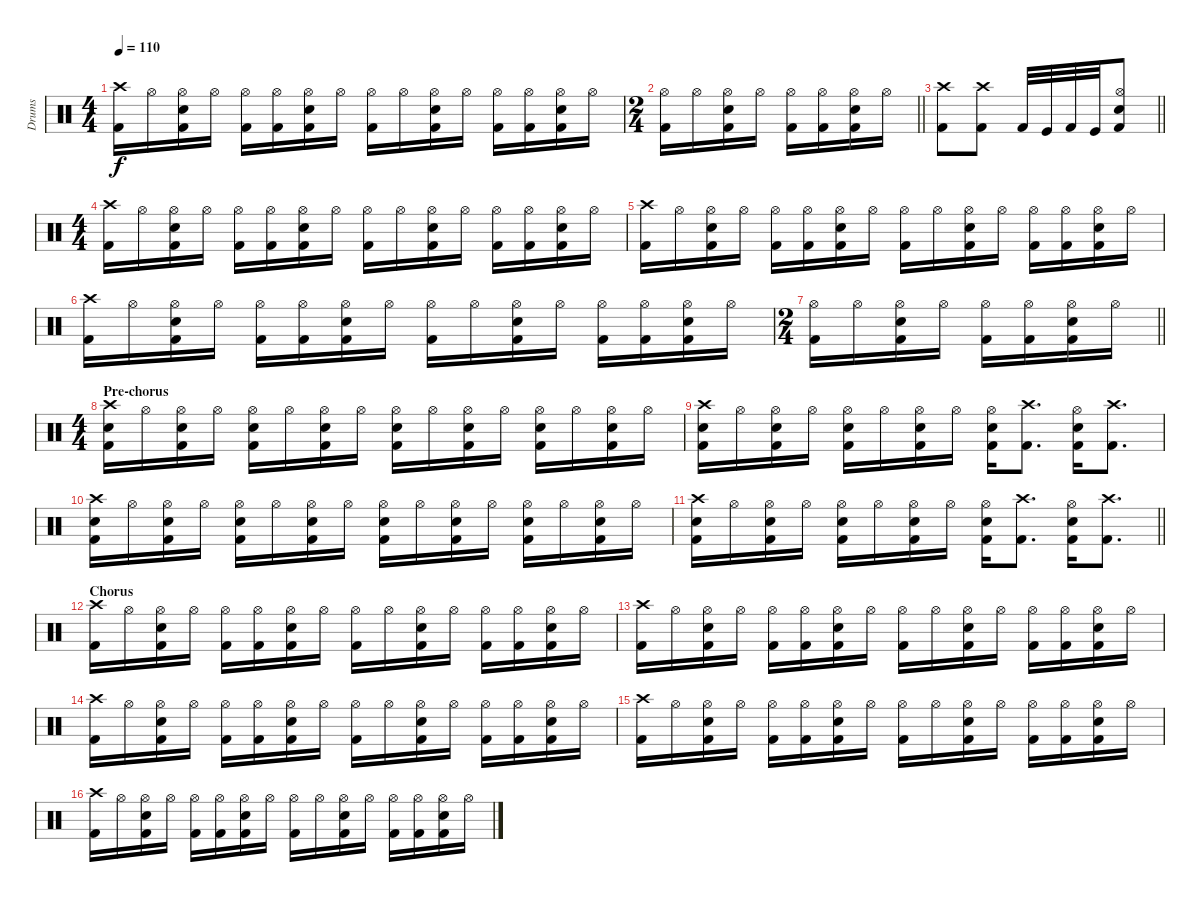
\track ("Drums" "Drums") {instrument percussion}
\staff {score}
\articulation defaults
\ts (4 4)
\tempo 110
\clef neutral
\ks c
("Kick (hit) 2" "Crash high (hit)").16{dy f} "Hi-Hat (open)".16 ("Kick (hit) 2" "Snare (hit) 2" "Hi-Hat (open)").16 "Hi-Hat (open)".16 ("Kick (hit) 2" "Hi-Hat (open)").16 ("Kick (hit) 2" "Hi-Hat (open)").16 ("Kick (hit) 2" "Snare (hit) 2" "Hi-Hat (open)").16 "Hi-Hat (open)".16 ("Kick (hit) 2" "Hi-Hat (open)").16 "Hi-Hat (open)".16 ("Kick (hit) 2" "Snare (hit) 2" "Hi-Hat (open)").16 "Hi-Hat (open)".16 ("Kick (hit) 2" "Hi-Hat (open)").16 ("Kick (hit) 2" "Hi-Hat (open)").16 ("Kick (hit) 2" "Snare (hit) 2" "Hi-Hat (open)").16 "Hi-Hat (open)".16 |
\ts (2 4)
\barLineRight lightlight
("Kick (hit) 2" "Hi-Hat (open)").16 "Hi-Hat (open)".16 ("Kick (hit) 2" "Snare (hit) 2" "Hi-Hat (open)").16 "Hi-Hat (open)".16 ("Kick (hit) 2" "Hi-Hat (open)").16 ("Kick (hit) 2" "Hi-Hat (open)").16 ("Kick (hit) 2" "Snare (hit) 2" "Hi-Hat (open)").16 "Hi-Hat (open)".16 |
\barLineRight lightlight
("Kick (hit) 2" "Crash high (hit)").8 ("Kick (hit) 2" "Crash high (hit)").8 "Kick (hit) 2".32 "Kick (hit)".32 "Kick (hit) 2".32 "Kick (hit)".32 ("Kick (hit) 2" "Snare (hit) 2" "Hi-Hat (open)").8 |
\ts (4 4)
("Kick (hit) 2" "Crash high (hit)").16 "Hi-Hat (open)".16 ("Kick (hit) 2" "Snare (hit) 2" "Hi-Hat (open)").16 "Hi-Hat (open)".16 ("Kick (hit) 2" "Hi-Hat (open)").16 ("Kick (hit) 2" "Hi-Hat (open)").16 ("Kick (hit) 2" "Snare (hit) 2" "Hi-Hat (open)").16 "Hi-Hat (open)".16 ("Kick (hit) 2" "Hi-Hat (open)").16 "Hi-Hat (open)".16 ("Kick (hit) 2" "Snare (hit) 2" "Hi-Hat (open)").16 "Hi-Hat (open)".16 ("Kick (hit) 2" "Hi-Hat (open)").16 ("Kick (hit) 2" "Hi-Hat (open)").16 ("Kick (hit) 2" "Snare (hit) 2" "Hi-Hat (open)").16 "Hi-Hat (open)".16 |
("Kick (hit) 2" "Crash high (hit)").16 "Hi-Hat (open)".16 ("Kick (hit) 2" "Snare (hit) 2" "Hi-Hat (open)").16 "Hi-Hat (open)".16 ("Kick (hit) 2" "Hi-Hat (open)").16 ("Kick (hit) 2" "Hi-Hat (open)").16 ("Kick (hit) 2" "Snare (hit) 2" "Hi-Hat (open)").16 "Hi-Hat (open)".16 ("Kick (hit) 2" "Hi-Hat (open)").16 "Hi-Hat (open)".16 ("Kick (hit) 2" "Snare (hit) 2" "Hi-Hat (open)").16 "Hi-Hat (open)".16 ("Kick (hit) 2" "Hi-Hat (open)").16 ("Kick (hit) 2" "Hi-Hat (open)").16 ("Kick (hit) 2" "Snare (hit) 2" "Hi-Hat (open)").16 "Hi-Hat (open)".16 |
("Kick (hit) 2" "Crash high (hit)").16 "Hi-Hat (open)".16 ("Kick (hit) 2" "Snare (hit) 2" "Hi-Hat (open)").16 "Hi-Hat (open)".16 ("Kick (hit) 2" "Hi-Hat (open)").16 ("Kick (hit) 2" "Hi-Hat (open)").16 ("Kick (hit) 2" "Snare (hit) 2" "Hi-Hat (open)").16 "Hi-Hat (open)".16 ("Kick (hit) 2" "Hi-Hat (open)").16 "Hi-Hat (open)".16 ("Kick (hit) 2" "Snare (hit) 2" "Hi-Hat (open)").16 "Hi-Hat (open)".16 ("Kick (hit) 2" "Hi-Hat (open)").16 ("Kick (hit) 2" "Hi-Hat (open)").16 ("Kick (hit) 2" "Snare (hit) 2" "Hi-Hat (open)").16 "Hi-Hat (open)".16 |
\ts (2 4)
\barLineRight lightlight
("Kick (hit) 2" "Hi-Hat (open)").16 "Hi-Hat (open)".16 ("Kick (hit) 2" "Snare (hit) 2" "Hi-Hat (open)").16 "Hi-Hat (open)".16 ("Kick (hit) 2" "Hi-Hat (open)").16 ("Kick (hit) 2" "Hi-Hat (open)").16 ("Kick (hit) 2" "Snare (hit) 2" "Hi-Hat (open)").16 "Hi-Hat (open)".16 |
\ts (4 4)
\section ("" "Pre-chorus")
("Kick (hit) 2" "Snare (hit) 2" "Crash high (hit)").16 "Hi-Hat (open)".16 ("Kick (hit) 2" "Snare (hit) 2" "Hi-Hat (open)").16 "Hi-Hat (open)".16 ("Kick (hit) 2" "Snare (hit) 2" "Hi-Hat (open)").16 "Hi-Hat (open)".16 ("Kick (hit) 2" "Snare (hit) 2" "Hi-Hat (open)").16 "Hi-Hat (open)".16 ("Kick (hit) 2" "Snare (hit) 2" "Hi-Hat (open)").16 "Hi-Hat (open)".16 ("Kick (hit) 2" "Snare (hit) 2" "Hi-Hat (open)").16 "Hi-Hat (open)".16 ("Kick (hit) 2" "Snare (hit) 2" "Hi-Hat (open)").16 "Hi-Hat (open)".16 ("Kick (hit) 2" "Snare (hit) 2" "Hi-Hat (open)").16 "Hi-Hat (open)".16 |
("Kick (hit) 2" "Snare (hit) 2" "Crash high (hit)").16 "Hi-Hat (open)".16 ("Kick (hit) 2" "Snare (hit) 2" "Hi-Hat (open)").16 "Hi-Hat (open)".16 ("Kick (hit) 2" "Snare (hit) 2" "Hi-Hat (open)").16 "Hi-Hat (open)".16 ("Kick (hit) 2" "Snare (hit) 2" "Hi-Hat (open)").16 "Hi-Hat (open)".16 ("Kick (hit) 2" "Snare (hit) 2" "Hi-Hat (open)").16 ("Kick (hit) 2" "Crash high (hit)").8{d} ("Kick (hit) 2" "Snare (hit) 2" "Hi-Hat (open)").16 ("Kick (hit) 2" "Crash high (hit)").8{d} |
("Kick (hit) 2" "Snare (hit) 2" "Crash high (hit)").16 "Hi-Hat (open)".16 ("Kick (hit) 2" "Snare (hit) 2" "Hi-Hat (open)").16 "Hi-Hat (open)".16 ("Kick (hit) 2" "Snare (hit) 2" "Hi-Hat (open)").16 "Hi-Hat (open)".16 ("Kick (hit) 2" "Snare (hit) 2" "Hi-Hat (open)").16 "Hi-Hat (open)".16 ("Kick (hit) 2" "Snare (hit) 2" "Hi-Hat (open)").16 "Hi-Hat (open)".16 ("Kick (hit) 2" "Snare (hit) 2" "Hi-Hat (open)").16 "Hi-Hat (open)".16 ("Kick (hit) 2" "Snare (hit) 2" "Hi-Hat (open)").16 "Hi-Hat (open)".16 ("Kick (hit) 2" "Snare (hit) 2" "Hi-Hat (open)").16 "Hi-Hat (open)".16 |
\barLineRight lightlight
("Kick (hit) 2" "Snare (hit) 2" "Crash high (hit)").16 "Hi-Hat (open)".16 ("Kick (hit) 2" "Snare (hit) 2" "Hi-Hat (open)").16 "Hi-Hat (open)".16 ("Kick (hit) 2" "Snare (hit) 2" "Hi-Hat (open)").16 "Hi-Hat (open)".16 ("Kick (hit) 2" "Snare (hit) 2" "Hi-Hat (open)").16 "Hi-Hat (open)".16 ("Kick (hit) 2" "Snare (hit) 2" "Hi-Hat (open)").16 ("Kick (hit) 2" "Crash high (hit)").8{d} ("Kick (hit) 2" "Snare (hit) 2" "Hi-Hat (open)").16 ("Kick (hit) 2" "Crash high (hit)").8{d} |
\section ("" "Chorus")
("Kick (hit) 2" "Crash high (hit)").16 "Hi-Hat (open)".16 ("Kick (hit) 2" "Snare (hit) 2" "Hi-Hat (open)").16 "Hi-Hat (open)".16 ("Kick (hit) 2" "Hi-Hat (open)").16 ("Kick (hit) 2" "Hi-Hat (open)").16 ("Kick (hit) 2" "Snare (hit) 2" "Hi-Hat (open)").16 "Hi-Hat (open)".16 ("Kick (hit) 2" "Hi-Hat (open)").16 "Hi-Hat (open)".16 ("Kick (hit) 2" "Snare (hit) 2" "Hi-Hat (open)").16 "Hi-Hat (open)".16 ("Kick (hit) 2" "Hi-Hat (open)").16 ("Kick (hit) 2" "Hi-Hat (open)").16 ("Kick (hit) 2" "Snare (hit) 2" "Hi-Hat (open)").16 "Hi-Hat (open)".16 |
("Kick (hit) 2" "Crash high (hit)").16 "Hi-Hat (open)".16 ("Kick (hit) 2" "Snare (hit) 2" "Hi-Hat (open)").16 "Hi-Hat (open)".16 ("Kick (hit) 2" "Hi-Hat (open)").16 ("Kick (hit) 2" "Hi-Hat (open)").16 ("Kick (hit) 2" "Snare (hit) 2" "Hi-Hat (open)").16 "Hi-Hat (open)".16 ("Kick (hit) 2" "Hi-Hat (open)").16 "Hi-Hat (open)".16 ("Kick (hit) 2" "Snare (hit) 2" "Hi-Hat (open)").16 "Hi-Hat (open)".16 ("Kick (hit) 2" "Hi-Hat (open)").16 ("Kick (hit) 2" "Hi-Hat (open)").16 ("Kick (hit) 2" "Snare (hit) 2" "Hi-Hat (open)").16 "Hi-Hat (open)".16 |
("Kick (hit) 2" "Crash high (hit)").16 "Hi-Hat (open)".16 ("Kick (hit) 2" "Snare (hit) 2" "Hi-Hat (open)").16 "Hi-Hat (open)".16 ("Kick (hit) 2" "Hi-Hat (open)").16 ("Kick (hit) 2" "Hi-Hat (open)").16 ("Kick (hit) 2" "Snare (hit) 2" "Hi-Hat (open)").16 "Hi-Hat (open)".16 ("Kick (hit) 2" "Hi-Hat (open)").16 "Hi-Hat (open)".16 ("Kick (hit) 2" "Snare (hit) 2" "Hi-Hat (open)").16 "Hi-Hat (open)".16 ("Kick (hit) 2" "Hi-Hat (open)").16 ("Kick (hit) 2" "Hi-Hat (open)").16 ("Kick (hit) 2" "Snare (hit) 2" "Hi-Hat (open)").16 "Hi-Hat (open)".16 |
("Kick (hit) 2" "Crash high (hit)").16 "Hi-Hat (open)".16 ("Kick (hit) 2" "Snare (hit) 2" "Hi-Hat (open)").16 "Hi-Hat (open)".16 ("Kick (hit) 2" "Hi-Hat (open)").16 ("Kick (hit) 2" "Hi-Hat (open)").16 ("Kick (hit) 2" "Snare (hit) 2" "Hi-Hat (open)").16 "Hi-Hat (open)".16 ("Kick (hit) 2" "Hi-Hat (open)").16 "Hi-Hat (open)".16 ("Kick (hit) 2" "Snare (hit) 2" "Hi-Hat (open)").16 "Hi-Hat (open)".16 ("Kick (hit) 2" "Hi-Hat (open)").16 ("Kick (hit) 2" "Hi-Hat (open)").16 ("Kick (hit) 2" "Snare (hit) 2" "Hi-Hat (open)").16 "Hi-Hat (open)".16 |
("Kick (hit) 2" "Crash high (hit)").16 "Hi-Hat (open)".16 ("Kick (hit) 2" "Snare (hit) 2" "Hi-Hat (open)").16 "Hi-Hat (open)".16 ("Kick (hit) 2" "Hi-Hat (open)").16 ("Kick (hit) 2" "Hi-Hat (open)").16 ("Kick (hit) 2" "Snare (hit) 2" "Hi-Hat (open)").16 "Hi-Hat (open)".16 ("Kick (hit) 2" "Hi-Hat (open)").16 "Hi-Hat (open)".16 ("Kick (hit) 2" "Snare (hit) 2" "Hi-Hat (open)").16 "Hi-Hat (open)".16 ("Kick (hit) 2" "Hi-Hat (open)").16 ("Kick (hit) 2" "Hi-Hat (open)").16 ("Kick (hit) 2" "Snare (hit) 2" "Hi-Hat (open)").16 "Hi-Hat (open)".16
